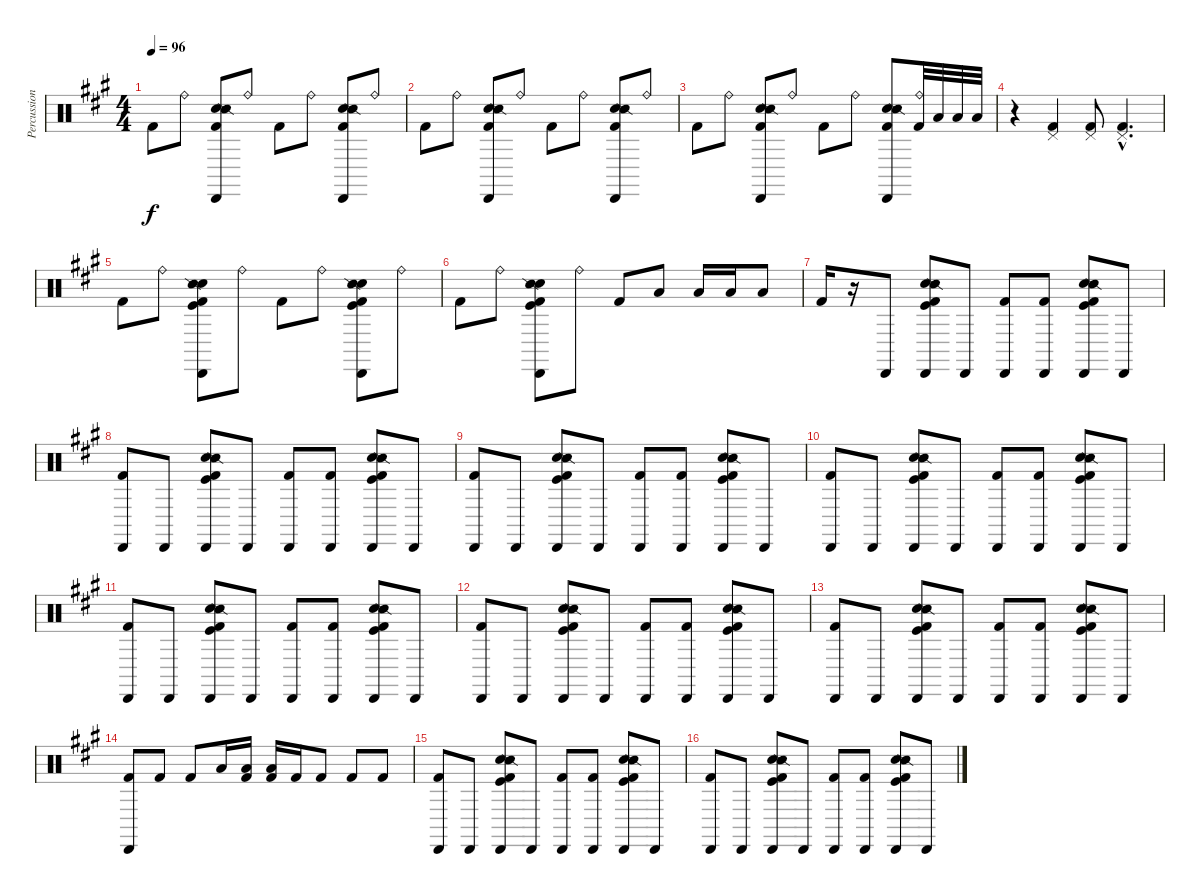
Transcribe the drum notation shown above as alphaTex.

\track ("Percussion" "Percussion") {instrument percussion}
\staff {score}
\articulation defaults
\ts (4 4)
\tempo 96
\clef neutral
\ks a "Kick (hit) 2".8{dy f} "Ride (bell)".8
("Hand Clap (hit)" "Snare (side stick) 2" "Cabasa (hit)" "Kick (hit) 2").8 "Ride (bell)".8 "Kick (hit) 2".8 "Ride (bell)".8 ("Hand Clap (hit)" "Snare (side stick) 2" "Cabasa (hit)" "Kick (hit) 2").8 "Ride (bell)".8 |
"Kick (hit) 2".8 "Ride (bell)".8 ("Hand Clap (hit)" "Snare (side stick) 2" "Kick (hit) 2" "Cabasa (hit)").8 "Ride (bell)".8 "Kick (hit) 2".8 "Ride (bell)".8 ("Hand Clap (hit)" "Snare (side stick) 2" "Kick (hit) 2" "Cabasa (hit)").8 "Ride (bell)".8 |
"Kick (hit) 2".8 "Ride (bell)".8 ("Hand Clap (hit)" "Snare (side stick) 2" "Kick (hit) 2" "Cabasa (hit)").8 "Ride (bell)".8 "Kick (hit) 2".8 "Ride (bell)".8 ("Hand Clap (hit)" "Snare (side stick) 2" "Kick (hit) 2" "Cabasa (hit)").8 ("Ride (bell)" "Kick (hit) 2").32 "Low Floor Tom (hit)".32 "Low Floor Tom (hit)".32 "Low Floor Tom (hit)".32 |
r.4 ("Kick (hit) 2" "Pedal Hi-Hat (hit)").4 ("Kick (hit) 2" "Pedal Hi-Hat (hit)").8 ("Kick (hit) 2"{hac} "Pedal Hi-Hat (hit)"{hac}).4{d} |
"Kick (hit) 2".8 "Ride (bell)".8 ("Hand Clap (hit)" "Snare (side stick) 2" "Kick (hit) 2" "Kick (hit)" "Cabasa (hit)").8 "Ride (bell)".8 "Kick (hit) 2".8 "Ride (bell)".8 ("Hand Clap (hit)" "Snare (side stick) 2" "Kick (hit) 2" "Kick (hit)" "Cabasa (hit)").8 "Ride (bell)".8 |
"Kick (hit) 2".8 "Ride (bell)".8 ("Hand Clap (hit)" "Snare (side stick) 2" "Kick (hit) 2" "Kick (hit)" "Cabasa (hit)").8 "Ride (bell)".8 "Kick (hit) 2".8 "Low Floor Tom (hit)".8 "Low Floor Tom (hit)".16 "Low Floor Tom (hit)".16 "Low Floor Tom (hit)".8 |
"Kick (hit) 2".16 r.16 "Cabasa (hit)".8 ("Hand Clap (hit)" "Snare (side stick) 2" "Kick (hit) 2" "Kick (hit)" "Cabasa (hit)").8 "Cabasa (hit)".8 ("Kick (hit) 2" "Cabasa (hit)").8 ("Kick (hit) 2" "Cabasa (hit)").8 ("Hand Clap (hit)" "Snare (side stick) 2" "Kick (hit) 2" "Kick (hit)" "Cabasa (hit)").8 "Cabasa (hit)".8 |
("Kick (hit) 2" "Cabasa (hit)").8 "Cabasa (hit)".8 ("Hand Clap (hit)" "Snare (side stick) 2" "Kick (hit) 2" "Kick (hit)" "Cabasa (hit)").8 "Cabasa (hit)".8 ("Kick (hit) 2" "Cabasa (hit)").8 ("Kick (hit) 2" "Cabasa (hit)").8 ("Hand Clap (hit)" "Snare (side stick) 2" "Kick (hit) 2" "Kick (hit)" "Cabasa (hit)").8 "Cabasa (hit)".8 |
("Kick (hit) 2" "Cabasa (hit)").8 "Cabasa (hit)".8 ("Hand Clap (hit)" "Snare (side stick) 2" "Kick (hit) 2" "Kick (hit)" "Cabasa (hit)").8 "Cabasa (hit)".8 ("Kick (hit) 2" "Cabasa (hit)").8 ("Kick (hit) 2" "Cabasa (hit)").8 ("Hand Clap (hit)" "Snare (side stick) 2" "Kick (hit) 2" "Kick (hit)" "Cabasa (hit)").8 "Cabasa (hit)".8 |
("Kick (hit) 2" "Cabasa (hit)").8 "Cabasa (hit)".8 ("Hand Clap (hit)" "Snare (side stick) 2" "Kick (hit) 2" "Kick (hit)" "Cabasa (hit)").8 "Cabasa (hit)".8 ("Kick (hit) 2" "Cabasa (hit)").8 ("Kick (hit) 2" "Cabasa (hit)").8 ("Hand Clap (hit)" "Snare (side stick) 2" "Kick (hit) 2" "Kick (hit)" "Cabasa (hit)").8 "Cabasa (hit)".8 |
("Kick (hit) 2" "Cabasa (hit)").8 "Cabasa (hit)".8 ("Hand Clap (hit)" "Snare (side stick) 2" "Kick (hit) 2" "Kick (hit)" "Cabasa (hit)").8 "Cabasa (hit)".8 ("Kick (hit) 2" "Cabasa (hit)").8 ("Kick (hit) 2" "Cabasa (hit)").8 ("Hand Clap (hit)" "Snare (side stick) 2" "Kick (hit) 2" "Kick (hit)" "Cabasa (hit)").8 "Cabasa (hit)".8 |
("Kick (hit) 2" "Cabasa (hit)").8 "Cabasa (hit)".8 ("Hand Clap (hit)" "Snare (side stick) 2" "Kick (hit) 2" "Kick (hit)" "Cabasa (hit)").8 "Cabasa (hit)".8 ("Kick (hit) 2" "Cabasa (hit)").8 ("Kick (hit) 2" "Cabasa (hit)").8 ("Hand Clap (hit)" "Snare (side stick) 2" "Kick (hit) 2" "Kick (hit)" "Cabasa (hit)").8 "Cabasa (hit)".8 |
("Kick (hit) 2" "Cabasa (hit)").8 "Cabasa (hit)".8 ("Hand Clap (hit)" "Snare (side stick) 2" "Kick (hit) 2" "Kick (hit)" "Cabasa (hit)").8 "Cabasa (hit)".8 ("Kick (hit) 2" "Cabasa (hit)").8 ("Kick (hit) 2" "Cabasa (hit)").8 ("Hand Clap (hit)" "Snare (side stick) 2" "Kick (hit) 2" "Kick (hit)" "Cabasa (hit)").8 "Cabasa (hit)".8 |
("Kick (hit) 2" "Cabasa (hit)").8 "Kick (hit) 2".8 "Kick (hit) 2".8 "Low Floor Tom (hit)".16 ("Kick (hit) 2" "Low Floor Tom (hit)").16 ("Kick (hit) 2" "Low Floor Tom (hit)").16 "Kick (hit) 2".16 "Kick (hit) 2".8 "Kick (hit) 2".8 "Kick (hit) 2".8 |
("Kick (hit) 2" "Cabasa (hit)").8 "Cabasa (hit)".8 ("Hand Clap (hit)" "Snare (side stick) 2" "Kick (hit) 2" "Kick (hit)" "Cabasa (hit)").8 "Cabasa (hit)".8 ("Kick (hit) 2" "Cabasa (hit)").8 ("Kick (hit) 2" "Cabasa (hit)").8 ("Hand Clap (hit)" "Snare (side stick) 2" "Kick (hit) 2" "Kick (hit)" "Cabasa (hit)").8 "Cabasa (hit)".8 |
("Kick (hit) 2" "Cabasa (hit)").8 "Cabasa (hit)".8 ("Hand Clap (hit)" "Snare (side stick) 2" "Kick (hit) 2" "Kick (hit)" "Cabasa (hit)").8 "Cabasa (hit)".8 ("Kick (hit) 2" "Cabasa (hit)").8 ("Kick (hit) 2" "Cabasa (hit)").8 ("Hand Clap (hit)" "Snare (side stick) 2" "Kick (hit) 2" "Kick (hit)" "Cabasa (hit)").8 "Cabasa (hit)".8
